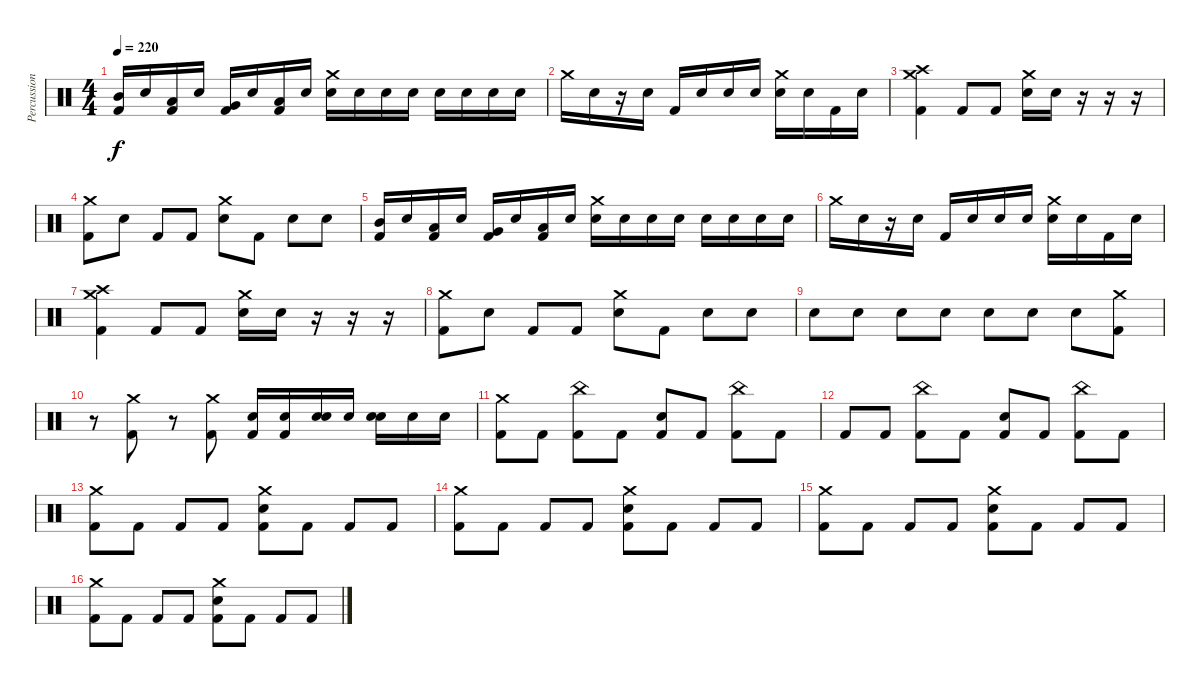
\track ("Percussion" "Percussion") {instrument percussion}
\staff {score}
\articulation defaults
\ts (4 4)
\tempo 220
\clef neutral
\ks c
("Mid Tom (hit)" "Kick (hit) 2").16{dy f} "Snare (hit)".16 ("Low Tom (hit)" "Kick (hit) 2").16 "Snare (hit)".16 ("Very Low Tom (hit)" "Kick (hit) 2").16 "Snare (hit)".16 ("Low Floor Tom (hit)" "Kick (hit) 2").16 "Snare (hit)".16 ("Snare (hit) 2" "Crash medium (hit)").16 "Snare (hit)".16 "Snare (hit)".16 "Snare (hit)".16 "Snare (hit)".16 "Snare (hit)".16 "Snare (hit)".16 "Snare (hit)".16 |
"Crash medium (hit)".16 "Snare (hit)".16 r.16 "Snare (hit)".16 "Kick (hit) 2".16 "Snare (hit)".16 "Snare (hit)".16 "Snare (hit)".16 ("Snare (hit) 2" "Crash medium (hit)").16 "Snare (hit)".16 "Kick (hit) 2".16 "Snare (hit)".16 |
("Crash high (hit)" "Crash medium (hit)" "Kick (hit) 2").4 "Kick (hit) 2".8 "Kick (hit) 2".8 ("Crash medium (hit)" "Snare (hit) 2").16 "Snare (hit)".16 r.16 r.16 r.16 |
("Kick (hit) 2" "Crash medium (hit)").8 "Snare (hit) 2".8 "Kick (hit) 2".8 "Kick (hit) 2".8 ("Snare (hit) 2" "Crash medium (hit)").8 "Kick (hit) 2".8 "Snare (hit) 2".8 "Snare (hit) 2".8 |
("Mid Tom (hit)" "Kick (hit) 2").16 "Snare (hit)".16 ("Low Tom (hit)" "Kick (hit) 2").16 "Snare (hit)".16 ("Very Low Tom (hit)" "Kick (hit) 2").16 "Snare (hit)".16 ("Low Floor Tom (hit)" "Kick (hit) 2").16 "Snare (hit)".16 ("Snare (hit) 2" "Crash medium (hit)").16 "Snare (hit)".16 "Snare (hit)".16 "Snare (hit)".16 "Snare (hit)".16 "Snare (hit)".16 "Snare (hit)".16 "Snare (hit)".16 |
"Crash medium (hit)".16 "Snare (hit)".16 r.16 "Snare (hit)".16 "Kick (hit) 2".16 "Snare (hit)".16 "Snare (hit)".16 "Snare (hit)".16 ("Snare (hit) 2" "Crash medium (hit)").16 "Snare (hit)".16 "Kick (hit) 2".16 "Snare (hit)".16 |
("Crash high (hit)" "Crash medium (hit)" "Kick (hit) 2").4 "Kick (hit) 2".8 "Kick (hit) 2".8 ("Crash medium (hit)" "Snare (hit) 2").16 "Snare (hit)".16 r.16 r.16 r.16 |
("Kick (hit) 2" "Crash medium (hit)").8 "Snare (hit) 2".8 "Kick (hit) 2".8 "Kick (hit) 2".8 ("Snare (hit) 2" "Crash medium (hit)").8 "Kick (hit) 2".8 "Snare (hit) 2".8 "Snare (hit) 2".8 |
"Snare (hit)".8 "Snare (hit)".8 "Snare (hit)".8 "Snare (hit)".8 "Snare (hit)".8 "Snare (hit)".8 "Snare (hit)".8 ("Crash medium (hit)" "Kick (hit) 2").8 |
r.8 ("Crash medium (hit)" "Kick (hit) 2").8 r.8 ("Kick (hit) 2" "Crash medium (hit)").8 ("Kick (hit) 2" "Snare (hit)").16 ("Kick (hit) 2" "Snare (hit)").16 ("Snare (hit) 2" "Snare (hit)").16 "Snare (hit)".16 ("Snare (hit) 2" "Snare (hit)").16 "Snare (hit)".16 "Snare (hit) 2".16 |
("Crash medium (hit)" "Kick (hit) 2").8 "Kick (hit) 2".8 ("China (hit)" "Kick (hit) 2").8 "Kick (hit) 2".8 ("Snare (hit) 2" "Kick (hit) 2").8 "Kick (hit) 2".8 ("China (hit)" "Kick (hit) 2").8 "Kick (hit) 2".8 |
"Kick (hit) 2".8 "Kick (hit) 2".8 ("China (hit)" "Kick (hit) 2").8 "Kick (hit) 2".8 ("Snare (hit) 2" "Kick (hit) 2").8 "Kick (hit) 2".8 ("China (hit)" "Kick (hit) 2").8 "Kick (hit) 2".8 |
("Crash medium (hit)" "Kick (hit) 2").8 "Kick (hit) 2".8 "Kick (hit) 2".8 "Kick (hit) 2".8 ("Snare (hit) 2" "Crash medium (hit)" "Kick (hit) 2").8 "Kick (hit) 2".8 "Kick (hit) 2".8 "Kick (hit) 2".8 |
("Crash medium (hit)" "Kick (hit) 2").8 "Kick (hit) 2".8 "Kick (hit) 2".8 "Kick (hit) 2".8 ("Snare (hit) 2" "Crash medium (hit)" "Kick (hit) 2").8 "Kick (hit) 2".8 "Kick (hit) 2".8 "Kick (hit) 2".8 |
("Crash medium (hit)" "Kick (hit) 2").8 "Kick (hit) 2".8 "Kick (hit) 2".8 "Kick (hit) 2".8 ("Snare (hit) 2" "Crash medium (hit)" "Kick (hit) 2").8 "Kick (hit) 2".8 "Kick (hit) 2".8 "Kick (hit) 2".8 |
("Crash medium (hit)" "Kick (hit) 2").8 "Kick (hit) 2".8 "Kick (hit) 2".8 "Kick (hit) 2".8 ("Snare (hit) 2" "Crash medium (hit)" "Kick (hit) 2").8 "Kick (hit) 2".8 "Kick (hit) 2".8 "Kick (hit) 2".8
